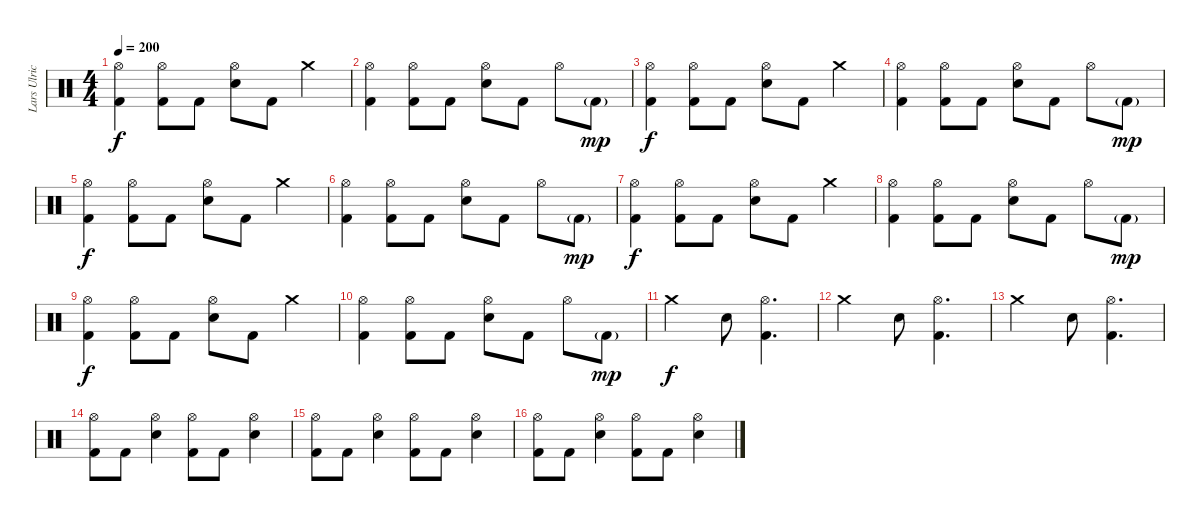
\track ("Lars Ulrich" "Lars Ulric") {instrument percussion}
\staff {score}
\articulation defaults
\ts (4 4)
\tempo 200
\clef neutral
\ks c
("Hi-Hat (open)" "Kick (hit) 2").4{dy f} ("Hi-Hat (open)" "Kick (hit) 2").8 "Kick (hit) 2".8 ("Hi-Hat (open)" "Electric Snare (hit)").8 "Kick (hit) 2".8 "Crash medium (hit)".4 |
("Hi-Hat (open)" "Kick (hit) 2").4 ("Hi-Hat (open)" "Kick (hit) 2").8 "Kick (hit) 2".8 ("Hi-Hat (open)" "Electric Snare (hit)").8 "Kick (hit) 2".8 "Hi-Hat (open)".8 "Kick (hit) 2"{g}.8{dy mp} |
("Hi-Hat (open)" "Kick (hit) 2").4{dy f} ("Hi-Hat (open)" "Kick (hit) 2").8 "Kick (hit) 2".8 ("Hi-Hat (open)" "Electric Snare (hit)").8 "Kick (hit) 2".8 "Crash medium (hit)".4 |
("Hi-Hat (open)" "Kick (hit) 2").4 ("Hi-Hat (open)" "Kick (hit) 2").8 "Kick (hit) 2".8 ("Hi-Hat (open)" "Electric Snare (hit)").8 "Kick (hit) 2".8 "Hi-Hat (open)".8 "Kick (hit) 2"{g}.8{dy mp} |
("Hi-Hat (open)" "Kick (hit) 2").4{dy f} ("Hi-Hat (open)" "Kick (hit) 2").8 "Kick (hit) 2".8 ("Hi-Hat (open)" "Electric Snare (hit)").8 "Kick (hit) 2".8 "Crash medium (hit)".4 |
("Hi-Hat (open)" "Kick (hit) 2").4 ("Hi-Hat (open)" "Kick (hit) 2").8 "Kick (hit) 2".8 ("Hi-Hat (open)" "Electric Snare (hit)").8 "Kick (hit) 2".8 "Hi-Hat (open)".8 "Kick (hit) 2"{g}.8{dy mp} |
("Hi-Hat (open)" "Kick (hit) 2").4{dy f} ("Hi-Hat (open)" "Kick (hit) 2").8 "Kick (hit) 2".8 ("Hi-Hat (open)" "Electric Snare (hit)").8 "Kick (hit) 2".8 "Crash medium (hit)".4 |
("Hi-Hat (open)" "Kick (hit) 2").4 ("Hi-Hat (open)" "Kick (hit) 2").8 "Kick (hit) 2".8 ("Hi-Hat (open)" "Electric Snare (hit)").8 "Kick (hit) 2".8 "Hi-Hat (open)".8 "Kick (hit) 2"{g}.8{dy mp} |
("Hi-Hat (open)" "Kick (hit) 2").4{dy f} ("Hi-Hat (open)" "Kick (hit) 2").8 "Kick (hit) 2".8 ("Hi-Hat (open)" "Electric Snare (hit)").8 "Kick (hit) 2".8 "Crash medium (hit)".4 |
("Hi-Hat (open)" "Kick (hit) 2").4 ("Hi-Hat (open)" "Kick (hit) 2").8 "Kick (hit) 2".8 ("Hi-Hat (open)" "Electric Snare (hit)").8 "Kick (hit) 2".8 "Hi-Hat (open)".8 "Kick (hit) 2"{g}.8{dy mp} |
"Crash medium (hit)".2{dy f} "Electric Snare (hit)".8 ("Hi-Hat (open)" "Kick (hit) 2").4{d} |
"Crash medium (hit)".2 "Electric Snare (hit)".8 ("Hi-Hat (open)" "Kick (hit) 2").4{d} |
"Crash medium (hit)".2 "Electric Snare (hit)".8 ("Hi-Hat (open)" "Kick (hit) 2").4{d} |
("Hi-Hat (open)" "Kick (hit) 2").8 "Kick (hit) 2".8 ("Hi-Hat (open)" "Electric Snare (hit)").4 ("Hi-Hat (open)" "Kick (hit) 2").8 "Kick (hit) 2".8 ("Hi-Hat (open)" "Electric Snare (hit)").4 |
("Hi-Hat (open)" "Kick (hit) 2").8 "Kick (hit) 2".8 ("Hi-Hat (open)" "Electric Snare (hit)").4 ("Hi-Hat (open)" "Kick (hit) 2").8 "Kick (hit) 2".8 ("Hi-Hat (open)" "Electric Snare (hit)").4 |
("Hi-Hat (open)" "Kick (hit) 2").8 "Kick (hit) 2".8 ("Hi-Hat (open)" "Electric Snare (hit)").4 ("Hi-Hat (open)" "Kick (hit) 2").8 "Kick (hit) 2".8 ("Hi-Hat (open)" "Electric Snare (hit)").4
